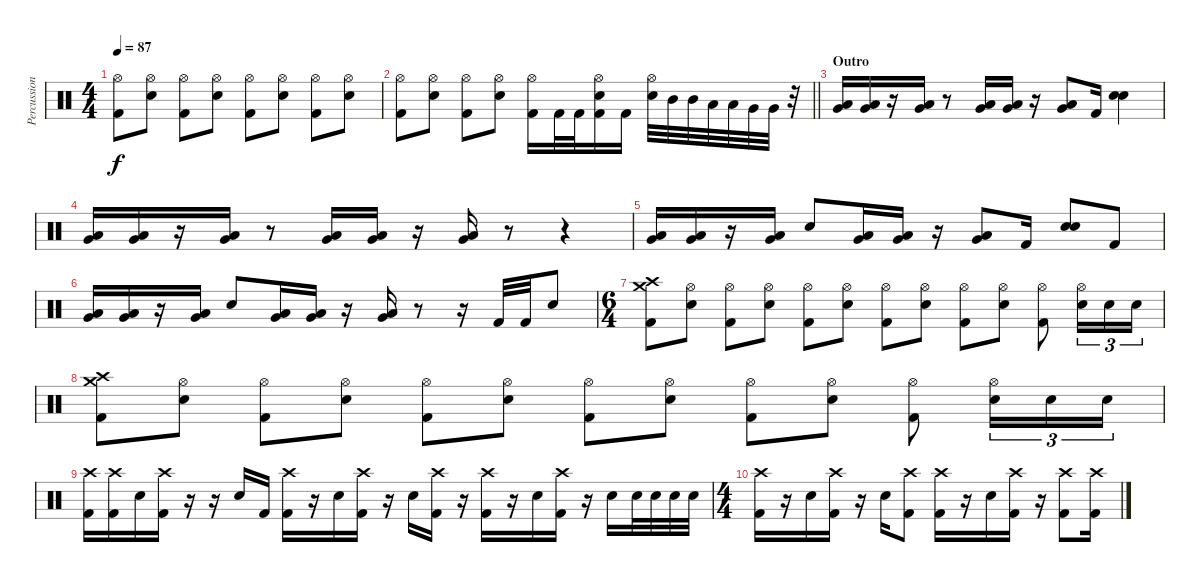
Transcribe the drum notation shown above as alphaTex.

\track ("Percussion" "Percussion") {instrument percussion}
\staff {score}
\articulation defaults
\ts (4 4)
\tempo 87
\clef neutral
\ks c
("Kick (hit) 2" "Hi-Hat (open)").8{dy f} ("Electric Snare (hit)" "Hi-Hat (open)").8 ("Kick (hit) 2" "Hi-Hat (open)").8 ("Electric Snare (hit)" "Hi-Hat (open)").8 ("Kick (hit) 2" "Hi-Hat (open)").8 ("Electric Snare (hit)" "Hi-Hat (open)").8 ("Kick (hit) 2" "Hi-Hat (open)").8 ("Electric Snare (hit)" "Hi-Hat (open)").8 |
\barLineRight lightlight
("Kick (hit) 2" "Hi-Hat (open)").8 ("Electric Snare (hit)" "Hi-Hat (open)").8 ("Kick (hit) 2" "Hi-Hat (open)").8 ("Electric Snare (hit)" "Hi-Hat (open)").8 ("Kick (hit) 2" "Hi-Hat (open)").16 "Kick (hit) 2".32 "Kick (hit) 2".32 ("Kick (hit) 2" "Electric Snare (hit)" "Hi-Hat (open)").16 "Kick (hit) 2".16 ("Electric Snare (hit)" "Hi-Hat (open)").32 "Mid Tom (hit)".32 "Mid Tom (hit)".32 "Low Tom (hit)".32 "Low Tom (hit)".32 "Very Low Tom (hit)".32 "Very Low Tom (hit)".32 r.32 |
\section ("" "Outro")
("Very Low Tom (hit)" "Low Tom (hit)").16 ("Very Low Tom (hit)" "Low Tom (hit)").16 r.16 ("Very Low Tom (hit)" "Low Tom (hit)").16 r.8 ("Very Low Tom (hit)" "Low Tom (hit)").16 ("Very Low Tom (hit)" "Low Tom (hit)").16 r.16 ("Very Low Tom (hit)" "Low Tom (hit)").8 "Kick (hit) 2".16 ("Electric Snare (hit)" "Electric Snare (hit)").4 |
("Very Low Tom (hit)" "Low Tom (hit)").16 ("Very Low Tom (hit)" "Low Tom (hit)").16 r.16 ("Very Low Tom (hit)" "Low Tom (hit)").16 r.8 ("Very Low Tom (hit)" "Low Tom (hit)").16 ("Very Low Tom (hit)" "Low Tom (hit)").16 r.16 ("Very Low Tom (hit)" "Low Tom (hit)").16 r.8 r.4 |
("Very Low Tom (hit)" "Low Tom (hit)").16 ("Very Low Tom (hit)" "Low Tom (hit)").16 r.16 ("Very Low Tom (hit)" "Low Tom (hit)").16 "Electric Snare (hit)".8 ("Very Low Tom (hit)" "Low Tom (hit)").16 ("Very Low Tom (hit)" "Low Tom (hit)").16 r.16 ("Very Low Tom (hit)" "Low Tom (hit)").8 "Kick (hit) 2".16 ("Electric Snare (hit)" "Electric Snare (hit)").8 "Kick (hit) 2".8 |
("Very Low Tom (hit)" "Low Tom (hit)").16 ("Very Low Tom (hit)" "Low Tom (hit)").16 r.16 ("Very Low Tom (hit)" "Low Tom (hit)").16 "Electric Snare (hit)".8 ("Very Low Tom (hit)" "Low Tom (hit)").16 ("Very Low Tom (hit)" "Low Tom (hit)").16 r.16 ("Very Low Tom (hit)" "Low Tom (hit)").16 r.8 r.16 "Kick (hit) 2".32 "Kick (hit) 2".32 "Electric Snare (hit)".8 |
\ts (6 4)
("Kick (hit) 2" "Crash high (hit)" "Crash medium (hit)").8 ("Electric Snare (hit)" "Hi-Hat (open)").8 ("Kick (hit) 2" "Hi-Hat (open)").8 ("Electric Snare (hit)" "Hi-Hat (open)").8 ("Kick (hit) 2" "Hi-Hat (open)").8 ("Electric Snare (hit)" "Hi-Hat (open)").8 ("Kick (hit) 2" "Hi-Hat (open)").8 ("Electric Snare (hit)" "Hi-Hat (open)").8 ("Kick (hit) 2" "Hi-Hat (open)").8 ("Electric Snare (hit)" "Hi-Hat (open)").8 ("Kick (hit) 2" "Hi-Hat (open)").8 ("Electric Snare (hit)" "Hi-Hat (open)").16{tu (3 2)} "Electric Snare (hit)".16{tu (3 2)} "Electric Snare (hit)".16{tu (3 2)} |
("Kick (hit) 2" "Crash high (hit)" "Crash medium (hit)").8 ("Electric Snare (hit)" "Hi-Hat (open)").8 ("Kick (hit) 2" "Hi-Hat (open)").8 ("Electric Snare (hit)" "Hi-Hat (open)").8 ("Kick (hit) 2" "Hi-Hat (open)").8 ("Electric Snare (hit)" "Hi-Hat (open)").8 ("Kick (hit) 2" "Hi-Hat (open)").8 ("Electric Snare (hit)" "Hi-Hat (open)").8 ("Kick (hit) 2" "Hi-Hat (open)").8 ("Electric Snare (hit)" "Hi-Hat (open)").8 ("Kick (hit) 2" "Hi-Hat (open)").8 ("Electric Snare (hit)" "Hi-Hat (open)").16{tu (3 2)} "Electric Snare (hit)".16{tu (3 2)} "Electric Snare (hit)".16{tu (3 2)} |
("Kick (hit) 2" "Crash high (hit)").16 ("Kick (hit) 2" "Crash high (hit)").16 "Electric Snare (hit)".16 ("Kick (hit) 2" "Crash high (hit)").16 r.16 r.16 "Electric Snare (hit)".16 "Kick (hit) 2".16 ("Kick (hit) 2" "Crash high (hit)").16 r.16 "Electric Snare (hit)".16 ("Kick (hit) 2" "Crash high (hit)").16 r.16 "Electric Snare (hit)".16 ("Kick (hit) 2" "Crash high (hit)").16 r.16 ("Kick (hit) 2" "Crash high (hit)").16 r.16 "Electric Snare (hit)".16 ("Kick (hit) 2" "Crash high (hit)").16 r.16 "Electric Snare (hit)".16 "Electric Snare (hit)".32 "Electric Snare (hit)".32 "Electric Snare (hit)".32 "Electric Snare (hit)".32 |
\ts (4 4)
("Kick (hit) 2" "Crash high (hit)").16 r.16 "Electric Snare (hit)".16 ("Kick (hit) 2" "Crash high (hit)").16 r.16 "Electric Snare (hit)".16 ("Kick (hit) 2" "Crash high (hit)").8 ("Kick (hit) 2" "Crash high (hit)").16 r.16 "Electric Snare (hit)".16 ("Kick (hit) 2" "Crash high (hit)").16 r.16 ("Kick (hit) 2" "Crash high (hit)").8 ("Kick (hit) 2" "Crash high (hit)").16
